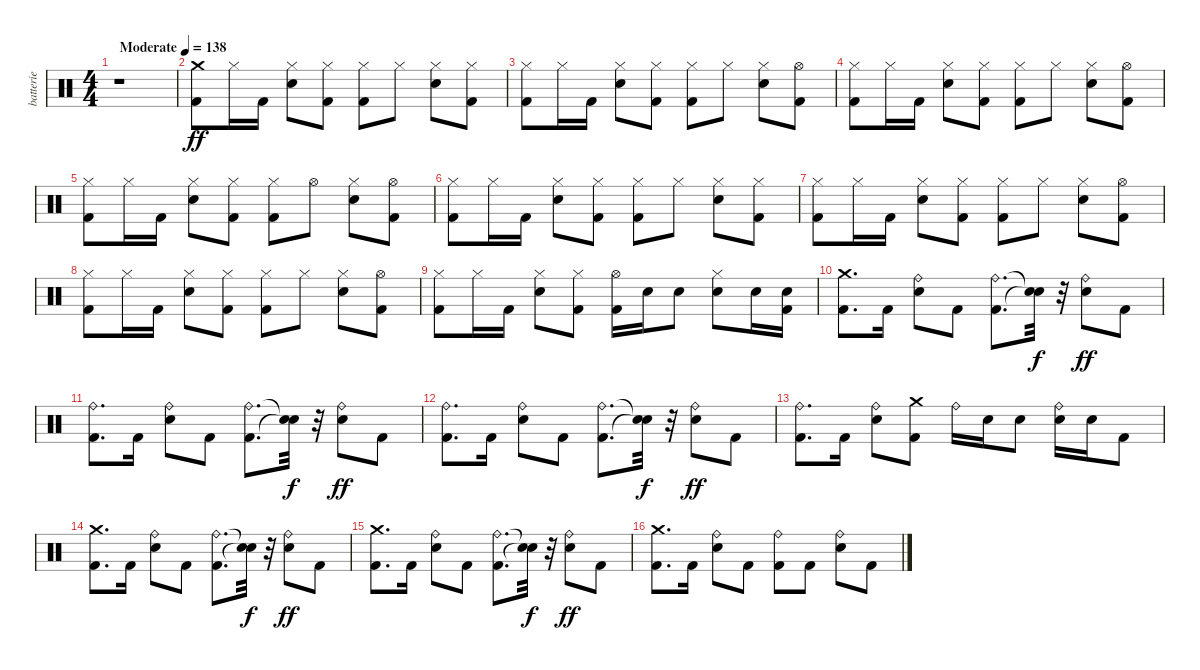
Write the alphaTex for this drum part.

\track ("batterie" "batterie") {instrument percussion}
\staff {score}
\articulation defaults
\ts (4 4)
\tempo (138 "Moderate")
\clef neutral
\ks c
r.1{dy ff} |
("Kick (hit) 2" "Crash medium (hit)").8 "Hi-Hat (closed)".16 "Kick (hit) 2".16 ("Electric Snare (hit)" "Hi-Hat (closed)").8 ("Kick (hit) 2" "Hi-Hat (closed)").8 ("Kick (hit) 2" "Hi-Hat (closed)").8 "Hi-Hat (closed)".8 ("Electric Snare (hit)" "Hi-Hat (closed)").8 ("Kick (hit) 2" "Hi-Hat (closed)").8 |
("Kick (hit) 2" "Hi-Hat (closed)").8 "Hi-Hat (closed)".16 "Kick (hit) 2".16 ("Electric Snare (hit)" "Hi-Hat (closed)").8 ("Kick (hit) 2" "Hi-Hat (closed)").8 ("Kick (hit) 2" "Hi-Hat (closed)").8 "Hi-Hat (closed)".8 ("Electric Snare (hit)" "Hi-Hat (closed)").8 ("Kick (hit) 2" "Hi-Hat (open)").8 |
("Kick (hit) 2" "Hi-Hat (closed)").8 "Hi-Hat (closed)".16 "Kick (hit) 2".16 ("Electric Snare (hit)" "Hi-Hat (closed)").8 ("Kick (hit) 2" "Hi-Hat (closed)").8 ("Kick (hit) 2" "Hi-Hat (closed)").8 "Hi-Hat (closed)".8 ("Electric Snare (hit)" "Hi-Hat (closed)").8 ("Kick (hit) 2" "Hi-Hat (open)").8 |
("Kick (hit) 2" "Hi-Hat (closed)").8 "Hi-Hat (closed)".16 "Kick (hit) 2".16 ("Electric Snare (hit)" "Hi-Hat (closed)").8 ("Kick (hit) 2" "Hi-Hat (closed)").8 ("Kick (hit) 2" "Hi-Hat (closed)").8 "Hi-Hat (open)".8 ("Electric Snare (hit)" "Hi-Hat (closed)").8 ("Kick (hit) 2" "Hi-Hat (open)").8 |
("Kick (hit) 2" "Hi-Hat (closed)").8 "Hi-Hat (closed)".16 "Kick (hit) 2".16 ("Electric Snare (hit)" "Hi-Hat (closed)").8 ("Kick (hit) 2" "Hi-Hat (closed)").8 ("Kick (hit) 2" "Hi-Hat (closed)").8 "Hi-Hat (closed)".8 ("Electric Snare (hit)" "Hi-Hat (closed)").8 ("Kick (hit) 2" "Hi-Hat (closed)").8 |
("Kick (hit) 2" "Hi-Hat (closed)").8 "Hi-Hat (closed)".16 "Kick (hit) 2".16 ("Electric Snare (hit)" "Hi-Hat (closed)").8 ("Kick (hit) 2" "Hi-Hat (closed)").8 ("Kick (hit) 2" "Hi-Hat (closed)").8 "Hi-Hat (closed)".8 ("Electric Snare (hit)" "Hi-Hat (closed)").8 ("Kick (hit) 2" "Hi-Hat (open)").8 |
("Kick (hit) 2" "Hi-Hat (closed)").8 "Hi-Hat (closed)".16 "Kick (hit) 2".16 ("Electric Snare (hit)" "Hi-Hat (closed)").8 ("Kick (hit) 2" "Hi-Hat (closed)").8 ("Kick (hit) 2" "Hi-Hat (closed)").8 "Hi-Hat (closed)".8 ("Electric Snare (hit)" "Hi-Hat (closed)").8 ("Kick (hit) 2" "Hi-Hat (open)").8 |
("Kick (hit) 2" "Hi-Hat (closed)").8 "Hi-Hat (closed)".16 "Kick (hit) 2".16 ("Electric Snare (hit)" "Hi-Hat (closed)").8 ("Kick (hit) 2" "Hi-Hat (closed)").8 ("Kick (hit) 2" "Hi-Hat (open)").16 "Electric Snare (hit)".16 "Electric Snare (hit)".8 ("Electric Snare (hit)" "Hi-Hat (closed)").8 "Electric Snare (hit)".16 ("Kick (hit) 2" "Electric Snare (hit)").16 |
("Kick (hit) 2" "Crash medium (hit)").8{d} "Kick (hit) 2".16 ("Electric Snare (hit)" "Ride (bell)").8 "Kick (hit) 2".8 ("Kick (hit) 2" "Ride (bell)").8{d} ("Snare (hit)"{t} "Snare (hit)"{t}).32{dy f} r.32 ("Electric Snare (hit)" "Ride (bell)").8{dy ff} "Kick (hit) 2".8 |
("Kick (hit) 2" "Ride (bell)").8{d} "Kick (hit) 2".16 ("Electric Snare (hit)" "Ride (bell)").8 "Kick (hit) 2".8 ("Kick (hit) 2" "Ride (bell)").8{d} ("Snare (hit)"{t} "Snare (hit)"{t}).32{dy f} r.32 ("Electric Snare (hit)" "Ride (bell)").8{dy ff} "Kick (hit) 2".8 |
("Kick (hit) 2" "Ride (bell)").8{d} "Kick (hit) 2".16 ("Electric Snare (hit)" "Ride (bell)").8 "Kick (hit) 2".8 ("Kick (hit) 2" "Ride (bell)").8{d} ("Snare (hit)"{t} "Snare (hit)"{t}).32{dy f} r.32 ("Electric Snare (hit)" "Ride (bell)").8{dy ff} "Kick (hit) 2".8 |
("Kick (hit) 2" "Ride (bell)").8{d} "Kick (hit) 2".16 ("Electric Snare (hit)" "Ride (bell)").8 ("Kick (hit) 2" "Crash medium (hit)").8 "Ride (bell)".16 "Electric Snare (hit)".16 "Electric Snare (hit)".8 ("Electric Snare (hit)" "Ride (bell)").16 "Electric Snare (hit)".16 "Kick (hit) 2".8 |
("Kick (hit) 2" "Crash medium (hit)").8{d} "Kick (hit) 2".16 ("Electric Snare (hit)" "Ride (bell)").8 "Kick (hit) 2".8 ("Kick (hit) 2" "Ride (bell)").8{d} ("Snare (hit)"{t} "Snare (hit)"{t}).32{dy f} r.32 ("Electric Snare (hit)" "Ride (bell)").8{dy ff} "Kick (hit) 2".8 |
("Kick (hit) 2" "Crash medium (hit)").8{d} "Kick (hit) 2".16 ("Electric Snare (hit)" "Ride (bell)").8 "Kick (hit) 2".8 ("Kick (hit) 2" "Ride (bell)").8{d} ("Snare (hit)"{t} "Snare (hit)"{t}).32{dy f} r.32 ("Electric Snare (hit)" "Ride (bell)").8{dy ff} "Kick (hit) 2".8 |
("Kick (hit) 2" "Crash medium (hit)").8{d} "Kick (hit) 2".16 ("Electric Snare (hit)" "Ride (bell)").8 "Kick (hit) 2".8 ("Kick (hit) 2" "Ride (bell)").8 "Kick (hit) 2".8 ("Electric Snare (hit)" "Ride (bell)").8 "Kick (hit) 2".8
